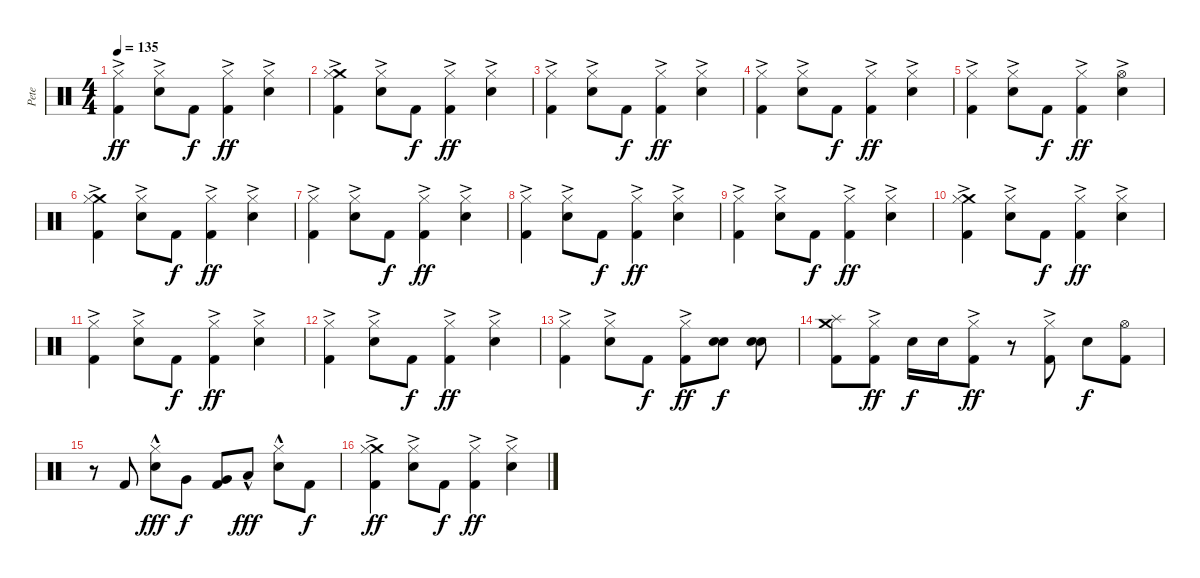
\track ("Pete" "Pete") {instrument percussion}
\staff {score}
\articulation defaults
\ts (4 4)
\tempo 135
\clef neutral
\ks c
("Hi-Hat (closed)"{ac} "Kick (hit) 2").4{dy ff} ("Hi-Hat (closed)"{ac} "Electric Snare (hit)").8 "Kick (hit) 2".8{dy f} ("Hi-Hat (closed)"{ac} "Kick (hit) 2").4{dy ff} ("Hi-Hat (closed)"{ac} "Electric Snare (hit)").4 |
("Crash medium (hit)" "Hi-Hat (closed)"{ac} "Kick (hit) 2").4 ("Hi-Hat (closed)"{ac} "Electric Snare (hit)").8 "Kick (hit) 2".8{dy f} ("Hi-Hat (closed)"{ac} "Kick (hit) 2").4{dy ff} ("Hi-Hat (closed)"{ac} "Electric Snare (hit)").4 |
("Hi-Hat (closed)"{ac} "Kick (hit) 2").4 ("Hi-Hat (closed)"{ac} "Electric Snare (hit)").8 "Kick (hit) 2".8{dy f} ("Hi-Hat (closed)"{ac} "Kick (hit) 2").4{dy ff} ("Hi-Hat (closed)"{ac} "Electric Snare (hit)").4 |
("Hi-Hat (closed)"{ac} "Kick (hit) 2").4 ("Hi-Hat (closed)"{ac} "Electric Snare (hit)").8 "Kick (hit) 2".8{dy f} ("Hi-Hat (closed)"{ac} "Kick (hit) 2").4{dy ff} ("Hi-Hat (closed)"{ac} "Electric Snare (hit)").4 |
("Hi-Hat (closed)"{ac} "Kick (hit) 2").4 ("Hi-Hat (closed)"{ac} "Electric Snare (hit)").8 "Kick (hit) 2".8{dy f} ("Hi-Hat (closed)"{ac} "Kick (hit) 2").4{dy ff} ("Hi-Hat (open)"{ac} "Electric Snare (hit)").4 |
("Crash medium (hit)" "Hi-Hat (closed)"{ac} "Kick (hit) 2").4 ("Hi-Hat (closed)"{ac} "Electric Snare (hit)").8 "Kick (hit) 2".8{dy f} ("Hi-Hat (closed)"{ac} "Kick (hit) 2").4{dy ff} ("Hi-Hat (closed)"{ac} "Electric Snare (hit)").4 |
("Hi-Hat (closed)"{ac} "Kick (hit) 2").4 ("Hi-Hat (closed)"{ac} "Electric Snare (hit)").8 "Kick (hit) 2".8{dy f} ("Hi-Hat (closed)"{ac} "Kick (hit) 2").4{dy ff} ("Hi-Hat (closed)"{ac} "Electric Snare (hit)").4 |
("Hi-Hat (closed)"{ac} "Kick (hit) 2").4 ("Hi-Hat (closed)"{ac} "Electric Snare (hit)").8 "Kick (hit) 2".8{dy f} ("Hi-Hat (closed)"{ac} "Kick (hit) 2").4{dy ff} ("Hi-Hat (closed)"{ac} "Electric Snare (hit)").4 |
("Hi-Hat (closed)"{ac} "Kick (hit) 2").4 ("Hi-Hat (closed)"{ac} "Electric Snare (hit)").8 "Kick (hit) 2".8{dy f} ("Hi-Hat (closed)"{ac} "Kick (hit) 2").4{dy ff} ("Hi-Hat (closed)"{ac} "Electric Snare (hit)").4 |
("Crash medium (hit)" "Hi-Hat (closed)"{ac} "Kick (hit) 2").4 ("Hi-Hat (closed)"{ac} "Electric Snare (hit)").8 "Kick (hit) 2".8{dy f} ("Hi-Hat (closed)"{ac} "Kick (hit) 2").4{dy ff} ("Hi-Hat (closed)"{ac} "Electric Snare (hit)").4 |
("Hi-Hat (closed)"{ac} "Kick (hit) 2").4 ("Hi-Hat (closed)"{ac} "Electric Snare (hit)").8 "Kick (hit) 2".8{dy f} ("Hi-Hat (closed)"{ac} "Kick (hit) 2").4{dy ff} ("Hi-Hat (closed)"{ac} "Electric Snare (hit)").4 |
("Hi-Hat (closed)"{ac} "Kick (hit) 2").4 ("Hi-Hat (closed)"{ac} "Electric Snare (hit)").8 "Kick (hit) 2".8{dy f} ("Hi-Hat (closed)"{ac} "Kick (hit) 2").4{dy ff} ("Hi-Hat (closed)"{ac} "Electric Snare (hit)").4 |
("Hi-Hat (closed)"{ac} "Kick (hit) 2").4 ("Hi-Hat (closed)"{ac} "Electric Snare (hit)").8 "Kick (hit) 2".8{dy f} ("Hi-Hat (closed)"{ac} "Kick (hit) 2").8{dy ff} ("Electric Snare (hit)" "Electric Snare (hit)").8{dy f} ("Electric Snare (hit)" "Electric Snare (hit)").8 |
("Crash medium (hit)" "Splash (hit)" "Kick (hit) 2").8 ("Hi-Hat (closed)"{ac} "Kick (hit) 2").8{dy ff} "Electric Snare (hit)".16{dy f} "Electric Snare (hit)".16 ("Hi-Hat (closed)"{ac} "Kick (hit) 2").8{dy ff} r.8 ("Hi-Hat (closed)"{ac} "Kick (hit) 2").8 "Electric Snare (hit)".8{dy f} ("Hi-Hat (open)" "Kick (hit) 2").8 |
r.8 "Kick (hit) 2".8 ("Hi-Hat (closed)"{hac} "Electric Snare (hit)").8{dy fff} "Very Low Tom (hit)".8{dy f} ("Very Low Tom (hit)" "Kick (hit) 2").8 "Low Floor Tom (hit)"{hac}.8{dy fff} ("Hi-Hat (closed)"{hac} "Electric Snare (hit)").8 "Kick (hit) 2".8{dy f} |
("Crash medium (hit)" "Hi-Hat (closed)"{ac} "Kick (hit) 2").4{dy ff} ("Hi-Hat (closed)"{ac} "Electric Snare (hit)").8 "Kick (hit) 2".8{dy f} ("Hi-Hat (closed)"{ac} "Kick (hit) 2").4{dy ff} ("Hi-Hat (closed)"{ac} "Electric Snare (hit)").4
